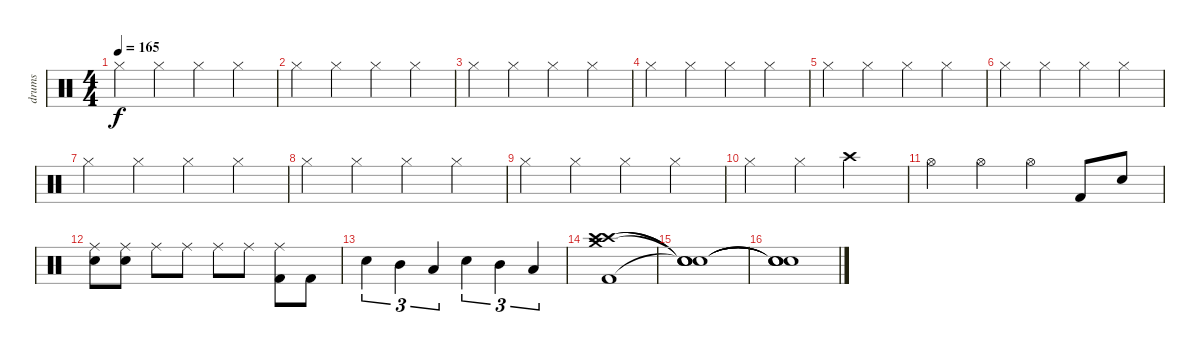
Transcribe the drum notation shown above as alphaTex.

\track ("drums" "drums") {instrument percussion}
\staff {score}
\articulation defaults
\ts (4 4)
\tempo 165
\clef neutral
\ks c "Hi-Hat (closed)".4{dy f} "Hi-Hat (closed)".4 "Hi-Hat (closed)".4 "Hi-Hat (closed)".4
|
"Hi-Hat (closed)".4 "Hi-Hat (closed)".4 "Hi-Hat (closed)".4 "Hi-Hat (closed)".4 |
"Hi-Hat (closed)".4 "Hi-Hat (closed)".4 "Hi-Hat (closed)".4 "Hi-Hat (closed)".4 |
"Hi-Hat (closed)".4 "Hi-Hat (closed)".4 "Hi-Hat (closed)".4 "Hi-Hat (closed)".4 |
"Hi-Hat (closed)".4 "Hi-Hat (closed)".4 "Hi-Hat (closed)".4 "Hi-Hat (closed)".4 |
"Hi-Hat (closed)".4 "Hi-Hat (closed)".4 "Hi-Hat (closed)".4 "Hi-Hat (closed)".4 |
"Hi-Hat (closed)".4 "Hi-Hat (closed)".4 "Hi-Hat (closed)".4 "Hi-Hat (closed)".4 |
"Hi-Hat (closed)".4 "Hi-Hat (closed)".4 "Hi-Hat (closed)".4 "Hi-Hat (closed)".4 |
"Hi-Hat (closed)".4 "Hi-Hat (closed)".4 "Hi-Hat (closed)".4 "Hi-Hat (closed)".4 |
"Hi-Hat (closed)".4 "Hi-Hat (closed)".4 "Crash high (hit)".2 |
"Hi-Hat (open)".4 "Hi-Hat (open)".4 "Hi-Hat (open)".4 "Kick (hit) 2".8 "Electric Snare (hit)".8 |
("Electric Snare (hit)" "Ride (middle)").8 ("Electric Snare (hit)" "Ride (middle)").8 "Ride (middle)".8 "Ride (middle)".8 "Ride (middle)".8 "Ride (middle)".8 ("Ride (middle)" "Kick (hit) 2").8 "Kick (hit) 2".8 |
"Electric Snare (hit)".4{tu (3 2)} "Mid Tom (hit)".4{tu (3 2)} "Low Tom (hit)".4{tu (3 2)} "Electric Snare (hit)".4{tu (3 2)} "Mid Tom (hit)".4{tu (3 2)} "Low Tom (hit)".4{tu (3 2)} |
("Crash medium (hit)" "Crash high (hit)" "Crash high (hit)" "Kick (hit) 2").1 |
("Snare (hit)"{t} "Snare (hit)"{t} "Snare (hit)"{t} "Snare (hit)"{t}).1 |
("Snare (hit)"{t} "Snare (hit)"{t} "Snare (hit)"{t} "Snare (hit)"{t}).1
